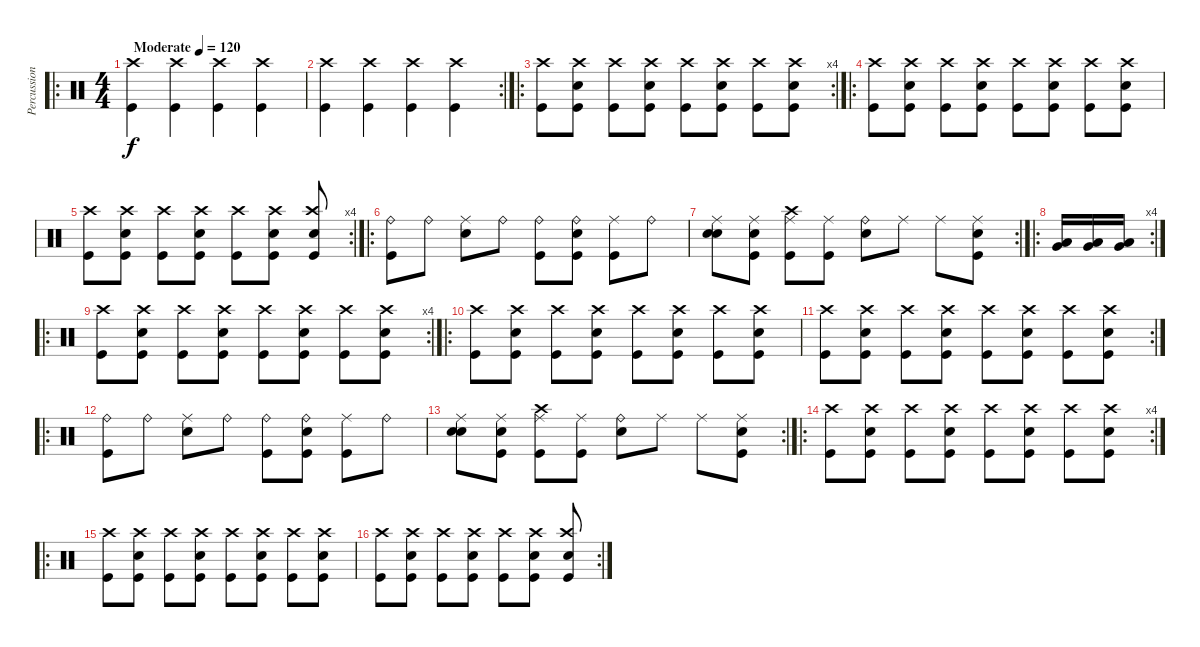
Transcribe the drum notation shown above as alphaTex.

\track ("Percussion" "Percussion") {instrument percussion}
\staff {score}
\articulation defaults
\ro
\ts (4 4)
\tempo (120 "Moderate")
\clef neutral
\ks c
("Kick (hit)" "Crash high (hit)").4{dy f} ("Kick (hit)" "Crash high (hit)").4 ("Kick (hit)" "Crash high (hit)").4 ("Kick (hit)" "Crash high (hit)").4 |
\rc 2
("Kick (hit)" "Crash high (hit)").4 ("Kick (hit)" "Crash high (hit)").4 ("Kick (hit)" "Crash high (hit)").4 ("Kick (hit)" "Crash high (hit)").4 |
\ro
\rc 4
("Kick (hit)" "Crash high (hit)").8 ("Electric Snare (hit)" "Kick (hit)" "Crash high (hit)").8 ("Kick (hit)" "Crash high (hit)").8 ("Electric Snare (hit)" "Kick (hit)" "Crash high (hit)").8 ("Kick (hit)" "Crash high (hit)").8 ("Electric Snare (hit)" "Kick (hit)" "Crash high (hit)").8 ("Kick (hit)" "Crash high (hit)").8 ("Electric Snare (hit)" "Kick (hit)" "Crash high (hit)").8 |
\ro
("Kick (hit)" "Crash high (hit)").8 ("Electric Snare (hit)" "Kick (hit)" "Crash high (hit)").8 ("Kick (hit)" "Crash high (hit)").8 ("Electric Snare (hit)" "Kick (hit)" "Crash high (hit)").8 ("Kick (hit)" "Crash high (hit)").8 ("Electric Snare (hit)" "Kick (hit)" "Crash high (hit)").8 ("Kick (hit)" "Crash high (hit)").8 ("Electric Snare (hit)" "Kick (hit)" "Crash high (hit)").8 |
\rc 4
("Kick (hit)" "Crash high (hit)").8 ("Electric Snare (hit)" "Kick (hit)" "Crash high (hit)").8 ("Kick (hit)" "Crash high (hit)").8 ("Electric Snare (hit)" "Kick (hit)" "Crash high (hit)").8 ("Kick (hit)" "Crash high (hit)").8 ("Electric Snare (hit)" "Kick (hit)" "Crash high (hit)").8 ("Electric Snare (hit)" "Kick (hit)" "Crash high (hit)").8 |
\ro
("Kick (hit)" "Ride (bell)").8 "Ride (bell)".8 ("Electric Snare (hit)" "Ride (middle)").8 "Ride (bell)".8 ("Kick (hit)" "Ride (bell)").8 ("Kick (hit)" "Electric Snare (hit)" "Ride (bell)").8 ("Kick (hit)" "Ride (middle)").8 "Ride (bell)".8 |
\rc 2
("Electric Snare (hit)" "Electric Snare (hit)" "Ride (middle)").8 ("Electric Snare (hit)" "Kick (hit)" "Ride (middle)").8 ("Crash high (hit)" "Kick (hit)" "Ride (middle)").8 ("Kick (hit)" "Ride (middle)").8 ("Electric Snare (hit)" "Ride (bell)").8 "Ride (middle)".8 "Ride (middle)".8 ("Kick (hit)" "Electric Snare (hit)" "Ride (middle)").8 |
\ro
\rc 4
("Very Low Tom (hit)" "Low Tom (hit)").16 ("Very Low Tom (hit)" "Low Tom (hit)").16 ("Very Low Tom (hit)" "Low Tom (hit)").16 |
\ro
\rc 4
("Kick (hit)" "Crash high (hit)").8 ("Electric Snare (hit)" "Kick (hit)" "Crash high (hit)").8 ("Kick (hit)" "Crash high (hit)").8 ("Electric Snare (hit)" "Kick (hit)" "Crash high (hit)").8 ("Kick (hit)" "Crash high (hit)").8 ("Electric Snare (hit)" "Kick (hit)" "Crash high (hit)").8 ("Kick (hit)" "Crash high (hit)").8 ("Electric Snare (hit)" "Kick (hit)" "Crash high (hit)").8 |
\ro
("Kick (hit)" "Crash high (hit)").8 ("Electric Snare (hit)" "Kick (hit)" "Crash high (hit)").8 ("Kick (hit)" "Crash high (hit)").8 ("Electric Snare (hit)" "Kick (hit)" "Crash high (hit)").8 ("Kick (hit)" "Crash high (hit)").8 ("Electric Snare (hit)" "Kick (hit)" "Crash high (hit)").8 ("Kick (hit)" "Crash high (hit)").8 ("Electric Snare (hit)" "Kick (hit)" "Crash high (hit)").8 |
\rc 2
("Kick (hit)" "Crash high (hit)").8 ("Electric Snare (hit)" "Kick (hit)" "Crash high (hit)").8 ("Kick (hit)" "Crash high (hit)").8 ("Electric Snare (hit)" "Kick (hit)" "Crash high (hit)").8 ("Kick (hit)" "Crash high (hit)").8 ("Electric Snare (hit)" "Kick (hit)" "Crash high (hit)").8 ("Kick (hit)" "Crash high (hit)").8 ("Electric Snare (hit)" "Kick (hit)" "Crash high (hit)").8 |
\ro
("Kick (hit)" "Ride (bell)").8 "Ride (bell)".8 ("Electric Snare (hit)" "Ride (middle)").8 "Ride (bell)".8 ("Kick (hit)" "Ride (bell)").8 ("Kick (hit)" "Electric Snare (hit)" "Ride (bell)").8 ("Kick (hit)" "Ride (middle)").8 "Ride (bell)".8 |
\rc 2
("Electric Snare (hit)" "Electric Snare (hit)" "Ride (middle)").8 ("Electric Snare (hit)" "Kick (hit)" "Ride (middle)").8 ("Crash high (hit)" "Kick (hit)" "Ride (middle)").8 ("Kick (hit)" "Ride (middle)").8 ("Electric Snare (hit)" "Ride (bell)").8 "Ride (middle)".8 "Ride (middle)".8 ("Kick (hit)" "Electric Snare (hit)" "Ride (middle)").8 |
\ro
\rc 4
("Kick (hit)" "Crash high (hit)").8 ("Electric Snare (hit)" "Kick (hit)" "Crash high (hit)").8 ("Kick (hit)" "Crash high (hit)").8 ("Electric Snare (hit)" "Kick (hit)" "Crash high (hit)").8 ("Kick (hit)" "Crash high (hit)").8 ("Electric Snare (hit)" "Kick (hit)" "Crash high (hit)").8 ("Kick (hit)" "Crash high (hit)").8 ("Electric Snare (hit)" "Kick (hit)" "Crash high (hit)").8 |
\ro
("Kick (hit)" "Crash high (hit)").8 ("Electric Snare (hit)" "Kick (hit)" "Crash high (hit)").8 ("Kick (hit)" "Crash high (hit)").8 ("Electric Snare (hit)" "Kick (hit)" "Crash high (hit)").8 ("Kick (hit)" "Crash high (hit)").8 ("Electric Snare (hit)" "Kick (hit)" "Crash high (hit)").8 ("Kick (hit)" "Crash high (hit)").8 ("Electric Snare (hit)" "Kick (hit)" "Crash high (hit)").8 |
\rc 2
("Kick (hit)" "Crash high (hit)").8 ("Electric Snare (hit)" "Kick (hit)" "Crash high (hit)").8 ("Kick (hit)" "Crash high (hit)").8 ("Electric Snare (hit)" "Kick (hit)" "Crash high (hit)").8 ("Kick (hit)" "Crash high (hit)").8 ("Electric Snare (hit)" "Kick (hit)" "Crash high (hit)").8 ("Electric Snare (hit)" "Kick (hit)" "Crash high (hit)").8
